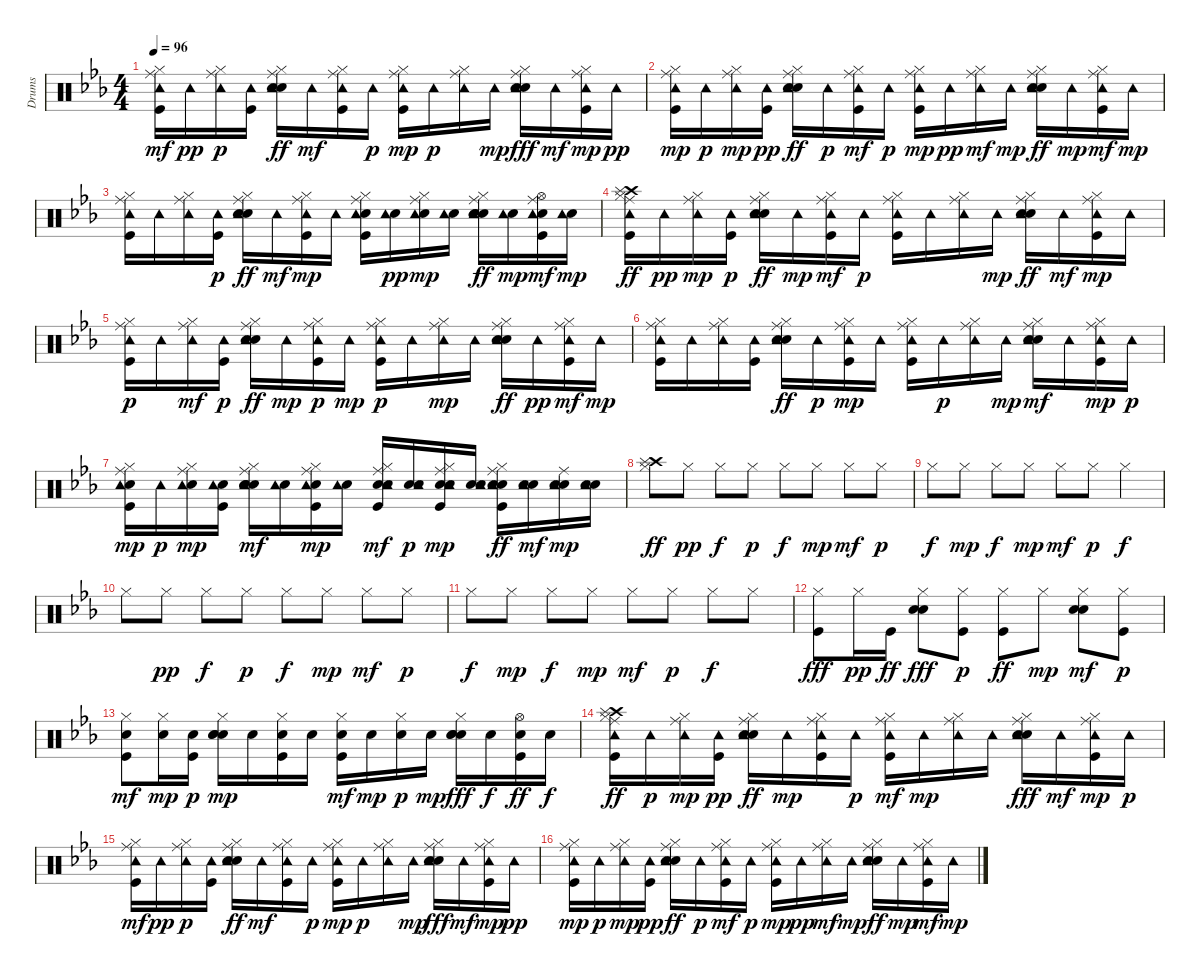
\track ("Drums" "Drums") {instrument percussion}
\staff {score}
\articulation defaults
\ts (4 4)
\tempo 96
\clef neutral
\ks eb
("Kick (hit)" "Hi-Hat (closed)" "Ride (middle)" "Tambourine (hit)").16{dy mf} "Tambourine (hit)".16{dy pp} ("Hi-Hat (closed)" "Ride (middle)" "Tambourine (hit)").16{dy p} ("Kick (hit)" "Tambourine (hit)").16 ("Snare (hit) 2" "Hand Clap (hit)" "Hi-Hat (closed)" "Ride (middle)" "Tambourine (hit)").16{dy ff} "Tambourine (hit)".16{dy mf} ("Kick (hit)" "Hi-Hat (closed)" "Ride (middle)" "Tambourine (hit)").16 "Tambourine (hit)".16{dy p} ("Kick (hit)" "Hi-Hat (closed)" "Ride (middle)" "Tambourine (hit)").16{dy mp} "Tambourine (hit)".16{dy p} ("Hi-Hat (closed)" "Ride (middle)" "Tambourine (hit)").16 "Tambourine (hit)".16{dy mp} ("Snare (hit) 2" "Hand Clap (hit)" "Hi-Hat (closed)" "Ride (middle)" "Tambourine (hit)").16{dy fff} "Tambourine (hit)".16{dy mf} ("Kick (hit)" "Hi-Hat (closed)" "Ride (middle)" "Tambourine (hit)").16{dy mp} "Tambourine (hit)".16{dy pp} |
("Kick (hit)" "Hi-Hat (closed)" "Ride (middle)" "Tambourine (hit)").16{dy mp} "Tambourine (hit)".16{dy p} ("Hi-Hat (closed)" "Ride (middle)" "Tambourine (hit)").16{dy mp} ("Kick (hit)" "Tambourine (hit)").16{dy pp} ("Snare (hit) 2" "Hand Clap (hit)" "Hi-Hat (closed)" "Ride (middle)" "Tambourine (hit)").16{dy ff} "Tambourine (hit)".16{dy p} ("Kick (hit)" "Hi-Hat (closed)" "Ride (middle)" "Tambourine (hit)").16{dy mf} "Tambourine (hit)".16{dy p} ("Kick (hit)" "Hi-Hat (closed)" "Ride (middle)" "Tambourine (hit)").16{dy mp} "Tambourine (hit)".16{dy pp} ("Hi-Hat (closed)" "Ride (middle)" "Tambourine (hit)").16{dy mf} "Tambourine (hit)".16{dy mp} ("Snare (hit) 2" "Hand Clap (hit)" "Hi-Hat (closed)" "Ride (middle)" "Tambourine (hit)").16{dy ff} "Tambourine (hit)".16{dy mp} ("Kick (hit)" "Hi-Hat (closed)" "Ride (middle)" "Tambourine (hit)").16{dy mf} "Tambourine (hit)".16{dy mp} |
("Kick (hit)" "Hi-Hat (closed)" "Ride (middle)" "Tambourine (hit)").16 "Tambourine (hit)".16 ("Hi-Hat (closed)" "Ride (middle)" "Tambourine (hit)").16 ("Kick (hit)" "Tambourine (hit)").16{dy p} ("Snare (hit) 2" "Hand Clap (hit)" "Hi-Hat (closed)" "Ride (middle)" "Tambourine (hit)").16{dy ff} "Tambourine (hit)".16{dy mf} ("Kick (hit)" "Hi-Hat (closed)" "Ride (middle)" "Tambourine (hit)").16{dy mp} "Tambourine (hit)".16 ("Kick (hit)" "Electric Snare (hit)" "Hi-Hat (closed)" "Ride (middle)" "Tambourine (hit)").16 ("Electric Snare (hit)" "Tambourine (hit)").16{dy pp} ("Electric Snare (hit)" "Hi-Hat (closed)" "Ride (middle)" "Tambourine (hit)").16{dy mp} ("Electric Snare (hit)" "Tambourine (hit)").16 ("Snare (hit) 2" "Hand Clap (hit)" "Electric Snare (hit)" "Hi-Hat (closed)" "Ride (middle)" "Tambourine (hit)").16{dy ff} ("Electric Snare (hit)" "Tambourine (hit)").16{dy mp} ("Kick (hit)" "Electric Snare (hit)" "Hi-Hat (open)" "Ride (middle)" "Tambourine (hit)").16{dy mf} ("Electric Snare (hit)" "Tambourine (hit)").16{dy mp} |
("Kick (hit)" "Hi-Hat (closed)" "Crash high (hit)" "Ride (middle)" "Tambourine (hit)" "Splash (hit)").16{dy ff} "Tambourine (hit)".16{dy pp} ("Hi-Hat (closed)" "Ride (middle)" "Tambourine (hit)").16{dy mp} ("Kick (hit)" "Tambourine (hit)").16{dy p} ("Snare (hit) 2" "Hand Clap (hit)" "Hi-Hat (closed)" "Ride (middle)" "Tambourine (hit)").16{dy ff} "Tambourine (hit)".16{dy mp} ("Kick (hit)" "Hi-Hat (closed)" "Ride (middle)" "Tambourine (hit)").16{dy mf} "Tambourine (hit)".16{dy p} ("Kick (hit)" "Hi-Hat (closed)" "Ride (middle)" "Tambourine (hit)").16 "Tambourine (hit)".16 ("Hi-Hat (closed)" "Ride (middle)" "Tambourine (hit)").16 "Tambourine (hit)".16{dy mp} ("Snare (hit) 2" "Hand Clap (hit)" "Hi-Hat (closed)" "Ride (middle)" "Tambourine (hit)").16{dy ff} "Tambourine (hit)".16{dy mf} ("Kick (hit)" "Hi-Hat (closed)" "Ride (middle)" "Tambourine (hit)").16{dy mp} "Tambourine (hit)".16 |
("Kick (hit)" "Hi-Hat (closed)" "Ride (middle)" "Tambourine (hit)").16{dy p} "Tambourine (hit)".16 ("Hi-Hat (closed)" "Ride (middle)" "Tambourine (hit)").16{dy mf} ("Kick (hit)" "Tambourine (hit)").16{dy p} ("Snare (hit) 2" "Hand Clap (hit)" "Hi-Hat (closed)" "Ride (middle)" "Tambourine (hit)").16{dy ff} "Tambourine (hit)".16{dy mp} ("Kick (hit)" "Hi-Hat (closed)" "Ride (middle)" "Tambourine (hit)").16{dy p} "Tambourine (hit)".16{dy mp} ("Kick (hit)" "Hi-Hat (closed)" "Ride (middle)" "Tambourine (hit)").16{dy p} "Tambourine (hit)".16 ("Hi-Hat (closed)" "Ride (middle)" "Tambourine (hit)").16{dy mp} "Tambourine (hit)".16 ("Snare (hit) 2" "Hand Clap (hit)" "Hi-Hat (closed)" "Ride (middle)" "Tambourine (hit)").16{dy ff} "Tambourine (hit)".16{dy pp} ("Kick (hit)" "Hi-Hat (closed)" "Ride (middle)" "Tambourine (hit)").16{dy mf} "Tambourine (hit)".16{dy mp} |
("Kick (hit)" "Hi-Hat (closed)" "Ride (middle)" "Tambourine (hit)").16 "Tambourine (hit)".16 ("Hi-Hat (closed)" "Ride (middle)" "Tambourine (hit)").16 ("Kick (hit)" "Tambourine (hit)").16 ("Snare (hit) 2" "Hand Clap (hit)" "Hi-Hat (closed)" "Ride (middle)" "Tambourine (hit)").16{dy ff} "Tambourine (hit)".16{dy p} ("Kick (hit)" "Hi-Hat (closed)" "Ride (middle)" "Tambourine (hit)").16{dy mp} "Tambourine (hit)".16 ("Kick (hit)" "Hi-Hat (closed)" "Ride (middle)" "Tambourine (hit)").16 "Tambourine (hit)".16{dy p} ("Hi-Hat (closed)" "Ride (middle)" "Tambourine (hit)").16 "Tambourine (hit)".16{dy mp} ("Snare (hit) 2" "Hand Clap (hit)" "Hi-Hat (closed)" "Ride (middle)" "Tambourine (hit)").16{dy mf} "Tambourine (hit)".16 ("Kick (hit)" "Hi-Hat (closed)" "Ride (middle)" "Tambourine (hit)").16{dy mp} "Tambourine (hit)".16{dy p} |
("Kick (hit)" "Electric Snare (hit)" "Hi-Hat (closed)" "Ride (middle)" "Tambourine (hit)").16{dy mp} "Tambourine (hit)".16{dy p} ("Electric Snare (hit)" "Hi-Hat (closed)" "Ride (middle)" "Tambourine (hit)").16{dy mp} ("Kick (hit)" "Electric Snare (hit)" "Tambourine (hit)").16 ("Snare (hit) 2" "Hand Clap (hit)" "Electric Snare (hit)" "Hi-Hat (closed)" "Ride (middle)" "Tambourine (hit)").16{dy mf} ("Electric Snare (hit)" "Tambourine (hit)").16 ("Kick (hit)" "Electric Snare (hit)" "Hi-Hat (closed)" "Ride (middle)" "Tambourine (hit)").16{dy mp} ("Electric Snare (hit)" "Tambourine (hit)").16 ("Kick (hit)" "Snare (hit) 2" "Electric Snare (hit)" "Hi-Hat (closed)" "Ride (middle)" "Tambourine (hit)").16{dy mf} ("Snare (hit) 2" "Electric Snare (hit)" "Tambourine (hit)").16{dy p} ("Kick (hit)" "Snare (hit) 2" "Electric Snare (hit)" "Hi-Hat (closed)" "Ride (middle)" "Tambourine (hit)").16{dy mp} ("Snare (hit) 2" "Electric Snare (hit)" "Tambourine (hit)").16 ("Kick (hit)" "Snare (hit) 2" "Electric Snare (hit)" "Hi-Hat (closed)" "Ride (middle)" "Tambourine (hit)").16{dy ff} ("Snare (hit) 2" "Electric Snare (hit)" "Tambourine (hit)").16{dy mf} ("Snare (hit) 2" "Electric Snare (hit)" "Ride (middle)" "Tambourine (hit)").16{dy mp} ("Snare (hit) 2" "Electric Snare (hit)" "Tambourine (hit)").16 |
("Hi-Hat (closed)" "Crash high (hit)" "Splash (hit)").8{dy ff} "Hi-Hat (closed)".8{dy pp} "Hi-Hat (closed)".8{dy f} "Hi-Hat (closed)".8{dy p} "Hi-Hat (closed)".8{dy f} "Hi-Hat (closed)".8{dy mp} "Hi-Hat (closed)".8{dy mf} "Hi-Hat (closed)".8{dy p} |
"Hi-Hat (closed)".8{dy f} "Hi-Hat (closed)".8{dy mp} "Hi-Hat (closed)".8{dy f} "Hi-Hat (closed)".8{dy mp} "Hi-Hat (closed)".8{dy mf} "Hi-Hat (closed)".8{dy p} "Hi-Hat (closed)".4{dy f} |
"Hi-Hat (closed)".8 "Hi-Hat (closed)".8{dy pp} "Hi-Hat (closed)".8{dy f} "Hi-Hat (closed)".8{dy p} "Hi-Hat (closed)".8{dy f} "Hi-Hat (closed)".8{dy mp} "Hi-Hat (closed)".8{dy mf} "Hi-Hat (closed)".8{dy p} |
"Hi-Hat (closed)".8{dy f} "Hi-Hat (closed)".8{dy mp} "Hi-Hat (closed)".8{dy f} "Hi-Hat (closed)".8{dy mp} "Hi-Hat (closed)".8{dy mf} "Hi-Hat (closed)".8{dy p} "Hi-Hat (closed)".8{dy f} "Hi-Hat (closed)".8 |
("Kick (hit)" "Hi-Hat (closed)").8{dy fff} "Hi-Hat (closed)".16{dy pp} "Kick (hit)".16{dy ff} ("Snare (hit) 2" "Hand Clap (hit)" "Hi-Hat (closed)").8{dy fff} ("Kick (hit)" "Hi-Hat (closed)").8{dy p} ("Kick (hit)" "Hi-Hat (closed)").8{dy ff} "Hi-Hat (closed)".8{dy mp} ("Snare (hit) 2" "Hand Clap (hit)" "Hi-Hat (closed)").8{dy mf} ("Kick (hit)" "Hi-Hat (closed)").8{dy p} |
("Kick (hit)" "Electric Snare (hit)" "Hi-Hat (closed)").8{dy mf} ("Electric Snare (hit)" "Hi-Hat (closed)").16{dy mp} ("Kick (hit)" "Electric Snare (hit)").16{dy p} ("Snare (hit) 2" "Hand Clap (hit)" "Electric Snare (hit)" "Hi-Hat (closed)").16{dy mp} "Electric Snare (hit)".16 ("Kick (hit)" "Electric Snare (hit)" "Hi-Hat (closed)").16 "Electric Snare (hit)".16 ("Kick (hit)" "Electric Snare (hit)" "Hi-Hat (closed)").16{dy mf} "Electric Snare (hit)".16{dy mp} ("Electric Snare (hit)" "Hi-Hat (closed)").16{dy p} "Electric Snare (hit)".16{dy mp} ("Snare (hit) 2" "Hand Clap (hit)" "Electric Snare (hit)" "Hi-Hat (closed)").16{dy fff} "Electric Snare (hit)".16{dy f} ("Kick (hit)" "Electric Snare (hit)" "Hi-Hat (open)").16{dy ff} "Electric Snare (hit)".16{dy f} |
("Kick (hit)" "Hi-Hat (closed)" "Crash high (hit)" "Ride (middle)" "Tambourine (hit)" "Splash (hit)").16{dy ff} "Tambourine (hit)".16{dy p} ("Hi-Hat (closed)" "Ride (middle)" "Tambourine (hit)").16{dy mp} ("Kick (hit)" "Tambourine (hit)").16{dy pp} ("Snare (hit) 2" "Hand Clap (hit)" "Hi-Hat (closed)" "Ride (middle)" "Tambourine (hit)").16{dy ff} "Tambourine (hit)".16{dy mp} ("Kick (hit)" "Hi-Hat (closed)" "Ride (middle)" "Tambourine (hit)").16 "Tambourine (hit)".16{dy p} ("Kick (hit)" "Hi-Hat (closed)" "Ride (middle)" "Tambourine (hit)").16{dy mf} "Tambourine (hit)".16{dy mp} ("Hi-Hat (closed)" "Ride (middle)" "Tambourine (hit)").16 "Tambourine (hit)".16 ("Snare (hit) 2" "Hand Clap (hit)" "Hi-Hat (closed)" "Ride (middle)" "Tambourine (hit)").16{dy fff} "Tambourine (hit)".16{dy mf} ("Kick (hit)" "Hi-Hat (closed)" "Ride (middle)" "Tambourine (hit)").16{dy mp} "Tambourine (hit)".16{dy p} |
("Kick (hit)" "Hi-Hat (closed)" "Ride (middle)" "Tambourine (hit)").16{dy mf} "Tambourine (hit)".16{dy pp} ("Hi-Hat (closed)" "Ride (middle)" "Tambourine (hit)").16{dy p} ("Kick (hit)" "Tambourine (hit)").16 ("Snare (hit) 2" "Hand Clap (hit)" "Hi-Hat (closed)" "Ride (middle)" "Tambourine (hit)").16{dy ff} "Tambourine (hit)".16{dy mf} ("Kick (hit)" "Hi-Hat (closed)" "Ride (middle)" "Tambourine (hit)").16 "Tambourine (hit)".16{dy p} ("Kick (hit)" "Hi-Hat (closed)" "Ride (middle)" "Tambourine (hit)").16{dy mp} "Tambourine (hit)".16{dy p} ("Hi-Hat (closed)" "Ride (middle)" "Tambourine (hit)").16 "Tambourine (hit)".16{dy mp} ("Snare (hit) 2" "Hand Clap (hit)" "Hi-Hat (closed)" "Ride (middle)" "Tambourine (hit)").16{dy fff} "Tambourine (hit)".16{dy mf} ("Kick (hit)" "Hi-Hat (closed)" "Ride (middle)" "Tambourine (hit)").16{dy mp} "Tambourine (hit)".16{dy pp} |
("Kick (hit)" "Hi-Hat (closed)" "Ride (middle)" "Tambourine (hit)").16{dy mp} "Tambourine (hit)".16{dy p} ("Hi-Hat (closed)" "Ride (middle)" "Tambourine (hit)").16{dy mp} ("Kick (hit)" "Tambourine (hit)").16{dy pp} ("Snare (hit) 2" "Hand Clap (hit)" "Hi-Hat (closed)" "Ride (middle)" "Tambourine (hit)").16{dy ff} "Tambourine (hit)".16{dy p} ("Kick (hit)" "Hi-Hat (closed)" "Ride (middle)" "Tambourine (hit)").16{dy mf} "Tambourine (hit)".16{dy p} ("Kick (hit)" "Hi-Hat (closed)" "Ride (middle)" "Tambourine (hit)").16{dy mp} "Tambourine (hit)".16{dy pp} ("Hi-Hat (closed)" "Ride (middle)" "Tambourine (hit)").16{dy mf} "Tambourine (hit)".16{dy mp} ("Snare (hit) 2" "Hand Clap (hit)" "Hi-Hat (closed)" "Ride (middle)" "Tambourine (hit)").16{dy ff} "Tambourine (hit)".16{dy mp} ("Kick (hit)" "Hi-Hat (closed)" "Ride (middle)" "Tambourine (hit)").16{dy mf} "Tambourine (hit)".16{dy mp}
